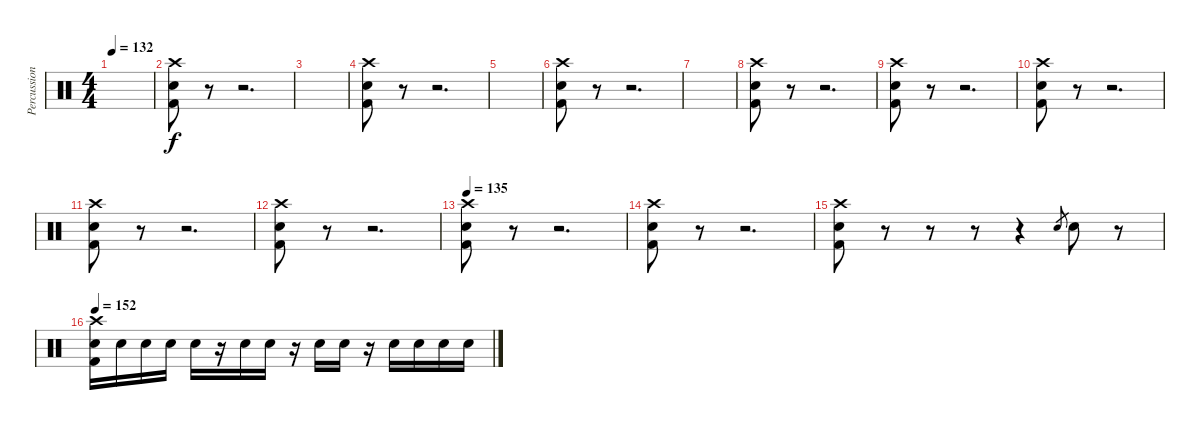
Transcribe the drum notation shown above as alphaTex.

\track ("Percussion" "Percussion") {instrument percussion}
\staff {score}
\articulation defaults
\ts (4 4)
\tempo 132
\clef neutral
\ks c
|
("Crash high (hit)" "Electric Snare (hit)" "Kick (hit) 2").8 r.8 r.2{d} |
|
("Crash high (hit)" "Electric Snare (hit)" "Kick (hit) 2").8 r.8 r.2{d} |
|
("Crash high (hit)" "Electric Snare (hit)" "Kick (hit) 2").8 r.8 r.2{d} |
|
("Crash high (hit)" "Electric Snare (hit)" "Kick (hit) 2").8 r.8 r.2{d} |
("Crash high (hit)" "Electric Snare (hit)" "Kick (hit) 2").8 r.8 r.2{d} |
("Crash high (hit)" "Electric Snare (hit)" "Kick (hit) 2").8 r.8 r.2{d} |
("Crash high (hit)" "Electric Snare (hit)" "Kick (hit) 2").8 r.8 r.2{d} |
("Crash high (hit)" "Electric Snare (hit)" "Kick (hit) 2").8 r.8 r.2{d} |
\tempo 135
("Crash high (hit)" "Electric Snare (hit)" "Kick (hit) 2").8 r.8 r.2{d} |
("Crash high (hit)" "Electric Snare (hit)" "Kick (hit) 2").8 r.8 r.2{d} |
("Crash high (hit)" "Electric Snare (hit)" "Kick (hit) 2").8 r.8 r.8 r.8 r.4 "Snare (hit) 2".8{gr} "Electric Snare (hit)".8 r.8 |
\tempo 152
("Crash high (hit)" "Snare (hit) 2" "Kick (hit) 2").16 "Snare (hit) 2".16 "Snare (hit) 2".16 "Snare (hit) 2".16 "Snare (hit) 2".16 r.16 "Snare (hit) 2".16 "Snare (hit) 2".16 r.16 "Snare (hit) 2".16 "Snare (hit) 2".16 r.16 "Electric Snare (hit)".16 "Snare (hit) 2".16 "Electric Snare (hit)".16 "Electric Snare (hit)".16
